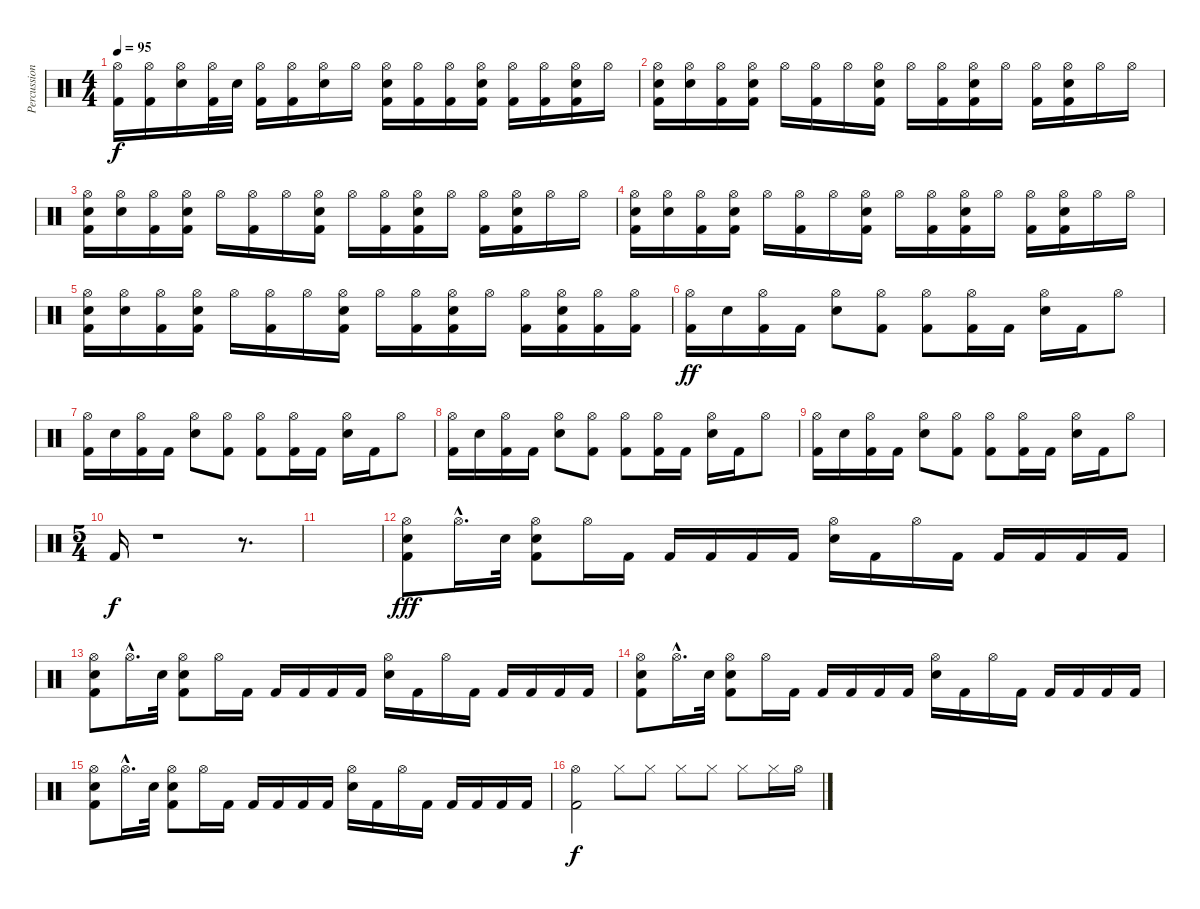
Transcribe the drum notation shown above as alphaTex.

\track ("Percussions" "Percussion") {instrument percussion}
\staff {score}
\articulation defaults
\ts (4 4)
\tempo 95
\clef neutral
\ks c
("Hi-Hat (open)" "Kick (hit) 2").16{dy f} ("Hi-Hat (open)" "Kick (hit) 2").16 ("Electric Snare (hit)" "Hi-Hat (open)").16 ("Hi-Hat (open)" "Kick (hit) 2").32 "Electric Snare (hit)".32 ("Hi-Hat (open)" "Kick (hit) 2").16 ("Hi-Hat (open)" "Kick (hit) 2").16 ("Electric Snare (hit)" "Hi-Hat (open)").16 "Hi-Hat (open)".16 ("Electric Snare (hit)" "Hi-Hat (open)" "Kick (hit) 2").16 ("Hi-Hat (open)" "Kick (hit) 2").16 ("Hi-Hat (open)" "Kick (hit) 2").16 ("Electric Snare (hit)" "Hi-Hat (open)" "Kick (hit) 2").16 ("Hi-Hat (open)" "Kick (hit) 2").16 ("Hi-Hat (open)" "Kick (hit) 2").16 ("Electric Snare (hit)" "Hi-Hat (open)" "Kick (hit) 2").16 "Hi-Hat (open)".16 |
("Electric Snare (hit)" "Hi-Hat (open)" "Kick (hit) 2").16 ("Electric Snare (hit)" "Hi-Hat (open)").16 ("Hi-Hat (open)" "Kick (hit) 2").16 ("Electric Snare (hit)" "Hi-Hat (open)" "Kick (hit) 2").16 "Hi-Hat (open)".16 ("Hi-Hat (open)" "Kick (hit) 2").16 "Hi-Hat (open)".16 ("Electric Snare (hit)" "Hi-Hat (open)" "Kick (hit) 2").16 "Hi-Hat (open)".16 ("Hi-Hat (open)" "Kick (hit) 2").16 ("Electric Snare (hit)" "Hi-Hat (open)" "Kick (hit) 2").16 "Hi-Hat (open)".16 ("Hi-Hat (open)" "Kick (hit) 2").16 ("Electric Snare (hit)" "Hi-Hat (open)" "Kick (hit) 2").16 "Hi-Hat (open)".16 "Hi-Hat (open)".16 |
("Electric Snare (hit)" "Hi-Hat (open)" "Kick (hit) 2").16 ("Electric Snare (hit)" "Hi-Hat (open)").16 ("Hi-Hat (open)" "Kick (hit) 2").16 ("Electric Snare (hit)" "Hi-Hat (open)" "Kick (hit) 2").16 "Hi-Hat (open)".16 ("Hi-Hat (open)" "Kick (hit) 2").16 "Hi-Hat (open)".16 ("Electric Snare (hit)" "Hi-Hat (open)" "Kick (hit) 2").16 "Hi-Hat (open)".16 ("Hi-Hat (open)" "Kick (hit) 2").16 ("Electric Snare (hit)" "Hi-Hat (open)" "Kick (hit) 2").16 "Hi-Hat (open)".16 ("Hi-Hat (open)" "Kick (hit) 2").16 ("Electric Snare (hit)" "Hi-Hat (open)" "Kick (hit) 2").16 "Hi-Hat (open)".16 "Hi-Hat (open)".16 |
("Electric Snare (hit)" "Hi-Hat (open)" "Kick (hit) 2").16 ("Electric Snare (hit)" "Hi-Hat (open)").16 ("Hi-Hat (open)" "Kick (hit) 2").16 ("Electric Snare (hit)" "Hi-Hat (open)" "Kick (hit) 2").16 "Hi-Hat (open)".16 ("Hi-Hat (open)" "Kick (hit) 2").16 "Hi-Hat (open)".16 ("Electric Snare (hit)" "Hi-Hat (open)" "Kick (hit) 2").16 "Hi-Hat (open)".16 ("Hi-Hat (open)" "Kick (hit) 2").16 ("Electric Snare (hit)" "Hi-Hat (open)" "Kick (hit) 2").16 "Hi-Hat (open)".16 ("Hi-Hat (open)" "Kick (hit) 2").16 ("Electric Snare (hit)" "Hi-Hat (open)" "Kick (hit) 2").16 "Hi-Hat (open)".16 "Hi-Hat (open)".16 |
("Electric Snare (hit)" "Hi-Hat (open)" "Kick (hit) 2").16 ("Electric Snare (hit)" "Hi-Hat (open)").16 ("Hi-Hat (open)" "Kick (hit) 2").16 ("Electric Snare (hit)" "Hi-Hat (open)" "Kick (hit) 2").16 "Hi-Hat (open)".16 ("Hi-Hat (open)" "Kick (hit) 2").16 "Hi-Hat (open)".16 ("Electric Snare (hit)" "Hi-Hat (open)" "Kick (hit) 2").16 "Hi-Hat (open)".16 ("Hi-Hat (open)" "Kick (hit) 2").16 ("Electric Snare (hit)" "Hi-Hat (open)" "Kick (hit) 2").16 "Hi-Hat (open)".16 ("Hi-Hat (open)" "Kick (hit) 2").16 ("Electric Snare (hit)" "Hi-Hat (open)" "Kick (hit) 2").16 ("Hi-Hat (open)" "Kick (hit) 2").16 ("Hi-Hat (open)" "Kick (hit) 2").16 |
("Hi-Hat (open)" "Kick (hit) 2").16{dy ff} "Electric Snare (hit)".16 ("Hi-Hat (open)" "Kick (hit) 2").16 "Kick (hit) 2".16 ("Electric Snare (hit)" "Hi-Hat (open)").8 ("Hi-Hat (open)" "Kick (hit) 2").8 ("Hi-Hat (open)" "Kick (hit) 2").8 ("Hi-Hat (open)" "Kick (hit) 2").16 "Kick (hit) 2".16 ("Electric Snare (hit)" "Hi-Hat (open)").16 "Kick (hit) 2".16 "Hi-Hat (open)".8 |
("Hi-Hat (open)" "Kick (hit) 2").16 "Electric Snare (hit)".16 ("Hi-Hat (open)" "Kick (hit) 2").16 "Kick (hit) 2".16 ("Electric Snare (hit)" "Hi-Hat (open)").8 ("Hi-Hat (open)" "Kick (hit) 2").8 ("Hi-Hat (open)" "Kick (hit) 2").8 ("Hi-Hat (open)" "Kick (hit) 2").16 "Kick (hit) 2".16 ("Electric Snare (hit)" "Hi-Hat (open)").16 "Kick (hit) 2".16 "Hi-Hat (open)".8 |
("Hi-Hat (open)" "Kick (hit) 2").16 "Electric Snare (hit)".16 ("Hi-Hat (open)" "Kick (hit) 2").16 "Kick (hit) 2".16 ("Electric Snare (hit)" "Hi-Hat (open)").8 ("Hi-Hat (open)" "Kick (hit) 2").8 ("Hi-Hat (open)" "Kick (hit) 2").8 ("Hi-Hat (open)" "Kick (hit) 2").16 "Kick (hit) 2".16 ("Electric Snare (hit)" "Hi-Hat (open)").16 "Kick (hit) 2".16 "Hi-Hat (open)".8 |
("Hi-Hat (open)" "Kick (hit) 2").16 "Electric Snare (hit)".16 ("Hi-Hat (open)" "Kick (hit) 2").16 "Kick (hit) 2".16 ("Electric Snare (hit)" "Hi-Hat (open)").8 ("Hi-Hat (open)" "Kick (hit) 2").8 ("Hi-Hat (open)" "Kick (hit) 2").8 ("Hi-Hat (open)" "Kick (hit) 2").16 "Kick (hit) 2".16 ("Electric Snare (hit)" "Hi-Hat (open)").16 "Kick (hit) 2".16 "Hi-Hat (open)".8 |
\ts (5 4)
"Kick (hit) 2".16{dy f} r.1 r.8{d} |
|
("Electric Snare (hit)" "Hi-Hat (open)" "Kick (hit) 2").8{dy fff} "Hi-Hat (open)"{hac}.16{d} "Electric Snare (hit)".32 ("Electric Snare (hit)" "Hi-Hat (open)" "Kick (hit) 2").8 "Hi-Hat (open)".16 "Kick (hit) 2".16 "Kick (hit) 2".16 "Kick (hit) 2".16 "Kick (hit) 2".16 "Kick (hit) 2".16 ("Electric Snare (hit)" "Hi-Hat (open)").16 "Kick (hit) 2".16 "Hi-Hat (open)".16 "Kick (hit) 2".16 "Kick (hit) 2".16 "Kick (hit) 2".16 "Kick (hit) 2".16 "Kick (hit) 2".16 |
("Electric Snare (hit)" "Hi-Hat (open)" "Kick (hit) 2").8 "Hi-Hat (open)"{hac}.16{d} "Electric Snare (hit)".32 ("Electric Snare (hit)" "Hi-Hat (open)" "Kick (hit) 2").8 "Hi-Hat (open)".16 "Kick (hit) 2".16 "Kick (hit) 2".16 "Kick (hit) 2".16 "Kick (hit) 2".16 "Kick (hit) 2".16 ("Electric Snare (hit)" "Hi-Hat (open)").16 "Kick (hit) 2".16 "Hi-Hat (open)".16 "Kick (hit) 2".16 "Kick (hit) 2".16 "Kick (hit) 2".16 "Kick (hit) 2".16 "Kick (hit) 2".16 |
("Electric Snare (hit)" "Hi-Hat (open)" "Kick (hit) 2").8 "Hi-Hat (open)"{hac}.16{d} "Electric Snare (hit)".32 ("Electric Snare (hit)" "Hi-Hat (open)" "Kick (hit) 2").8 "Hi-Hat (open)".16 "Kick (hit) 2".16 "Kick (hit) 2".16 "Kick (hit) 2".16 "Kick (hit) 2".16 "Kick (hit) 2".16 ("Electric Snare (hit)" "Hi-Hat (open)").16 "Kick (hit) 2".16 "Hi-Hat (open)".16 "Kick (hit) 2".16 "Kick (hit) 2".16 "Kick (hit) 2".16 "Kick (hit) 2".16 "Kick (hit) 2".16 |
("Electric Snare (hit)" "Hi-Hat (open)" "Kick (hit) 2").8 "Hi-Hat (open)"{hac}.16{d} "Electric Snare (hit)".32 ("Electric Snare (hit)" "Hi-Hat (open)" "Kick (hit) 2").8 "Hi-Hat (open)".16 "Kick (hit) 2".16 "Kick (hit) 2".16 "Kick (hit) 2".16 "Kick (hit) 2".16 "Kick (hit) 2".16 ("Electric Snare (hit)" "Hi-Hat (open)").16 "Kick (hit) 2".16 "Hi-Hat (open)".16 "Kick (hit) 2".16 "Kick (hit) 2".16 "Kick (hit) 2".16 "Kick (hit) 2".16 "Kick (hit) 2".16 |
("Hi-Hat (open)" "Kick (hit) 2").2{dy f} "Hi-Hat (closed)".8 "Hi-Hat (closed)".8 "Hi-Hat (closed)".8 "Hi-Hat (closed)".8 "Hi-Hat (closed)".8 "Hi-Hat (closed)".16 "Hi-Hat (open)".16
